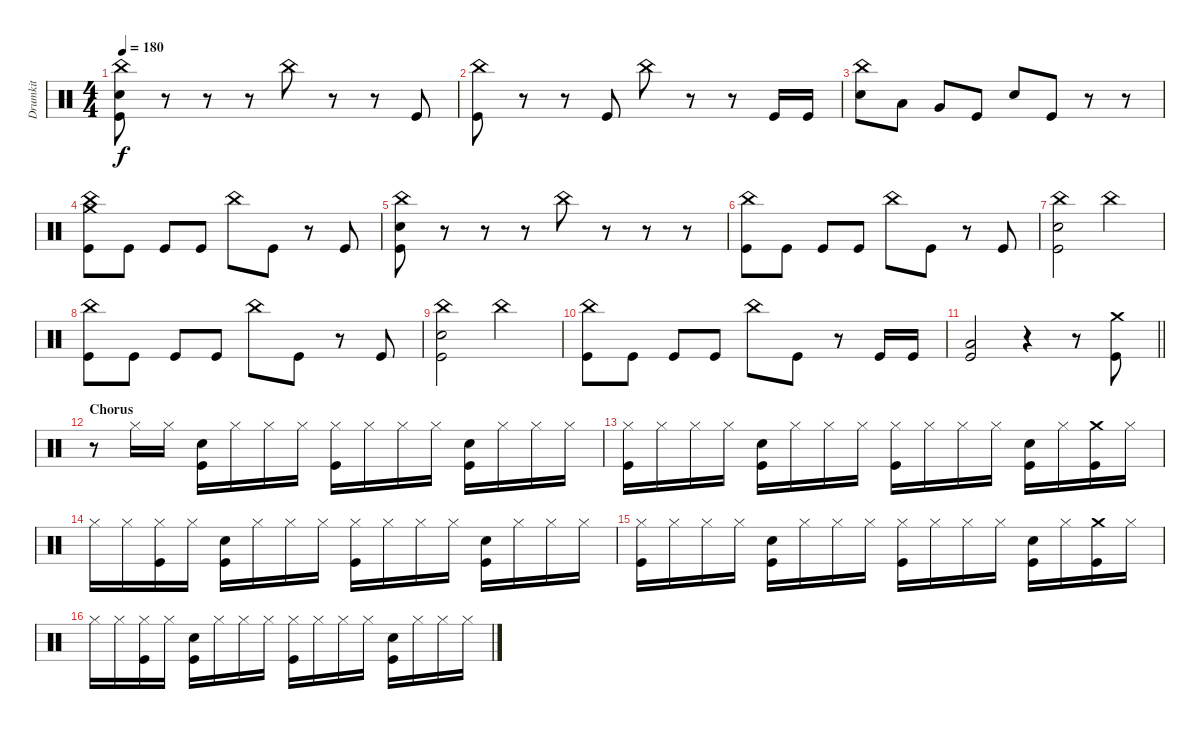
\track ("Drumkit" "Drumkit") {instrument percussion}
\staff {score}
\articulation defaults
\ts (4 4)
\tempo 180
\clef neutral
\ks c
("China (hit)" "Snare (hit) 2" "Kick (hit)").8{dy f} r.8 r.8 r.8 "China (hit)".8 r.8 r.8 "Kick (hit)".8 |
("China (hit)" "Kick (hit)").8 r.8 r.8 "Kick (hit)".8 "China (hit)".8 r.8 r.8 "Kick (hit)".16 "Kick (hit)".16 |
("China (hit)" "Snare (hit) 2").8 "Low Tom (hit)".8 "Very Low Tom (hit)".8 "Kick (hit)".8 "Snare (hit) 2".8 "Kick (hit)".8 r.8 r.8 |
("China (hit)" "Crash medium (hit)" "Kick (hit)").8 "Kick (hit)".8 "Kick (hit)".8 "Kick (hit)".8 "China (hit)".8 "Kick (hit)".8 r.8 "Kick (hit)".8 |
("China (hit)" "Snare (hit) 2" "Kick (hit)").8 r.8 r.8 r.8 "China (hit)".8 r.8 r.8 r.8 |
("China (hit)" "Kick (hit)").8 "Kick (hit)".8 "Kick (hit)".8 "Kick (hit)".8 "China (hit)".8 "Kick (hit)".8 r.8 "Kick (hit)".8 |
("China (hit)" "Snare (hit) 2" "Kick (hit)").2 "China (hit)".2 |
("China (hit)" "Kick (hit)").8 "Kick (hit)".8 "Kick (hit)".8 "Kick (hit)".8 "China (hit)".8 "Kick (hit)".8 r.8 "Kick (hit)".8 |
("China (hit)" "Snare (hit) 2" "Kick (hit)").2 "China (hit)".2 |
("China (hit)" "Kick (hit)").8 "Kick (hit)".8 "Kick (hit)".8 "Kick (hit)".8 "China (hit)".8 "Kick (hit)".8 r.8 "Kick (hit)".16 "Kick (hit)".16 |
\barLineRight lightlight
("Low Floor Tom (hit)" "Kick (hit)").2 r.4 r.8 ("Crash medium (hit)" "Kick (hit)").8 |
\section ("" "Chorus")
r.8 "Hi-Hat (closed)".16 "Hi-Hat (closed)".16 ("Snare (hit) 2" "Kick (hit)").16 "Hi-Hat (closed)".16 "Hi-Hat (closed)".16 "Hi-Hat (closed)".16 ("Hi-Hat (closed)" "Kick (hit)").16 "Hi-Hat (closed)".16 "Hi-Hat (closed)".16 "Hi-Hat (closed)".16 ("Snare (hit) 2" "Kick (hit)").16 "Hi-Hat (closed)".16 "Hi-Hat (closed)".16 "Hi-Hat (closed)".16 |
("Hi-Hat (closed)" "Kick (hit)").16 "Hi-Hat (closed)".16 "Hi-Hat (closed)".16 "Hi-Hat (closed)".16 ("Snare (hit) 2" "Kick (hit)").16 "Hi-Hat (closed)".16 "Hi-Hat (closed)".16 "Hi-Hat (closed)".16 ("Hi-Hat (closed)" "Kick (hit)").16 "Hi-Hat (closed)".16 "Hi-Hat (closed)".16 "Hi-Hat (closed)".16 ("Snare (hit) 2" "Kick (hit)").16 "Hi-Hat (closed)".16 ("Crash medium (hit)" "Kick (hit)").16 "Hi-Hat (closed)".16 |
"Hi-Hat (closed)".16 "Hi-Hat (closed)".16 ("Hi-Hat (closed)" "Kick (hit)").16 "Hi-Hat (closed)".16 ("Snare (hit) 2" "Kick (hit)").16 "Hi-Hat (closed)".16 "Hi-Hat (closed)".16 "Hi-Hat (closed)".16 ("Hi-Hat (closed)" "Kick (hit)").16 "Hi-Hat (closed)".16 "Hi-Hat (closed)".16 "Hi-Hat (closed)".16 ("Snare (hit) 2" "Kick (hit)").16 "Hi-Hat (closed)".16 "Hi-Hat (closed)".16 "Hi-Hat (closed)".16 |
("Hi-Hat (closed)" "Kick (hit)").16 "Hi-Hat (closed)".16 "Hi-Hat (closed)".16 "Hi-Hat (closed)".16 ("Snare (hit) 2" "Kick (hit)").16 "Hi-Hat (closed)".16 "Hi-Hat (closed)".16 "Hi-Hat (closed)".16 ("Hi-Hat (closed)" "Kick (hit)").16 "Hi-Hat (closed)".16 "Hi-Hat (closed)".16 "Hi-Hat (closed)".16 ("Snare (hit) 2" "Kick (hit)").16 "Hi-Hat (closed)".16 ("Crash medium (hit)" "Kick (hit)").16 "Hi-Hat (closed)".16 |
"Hi-Hat (closed)".16 "Hi-Hat (closed)".16 ("Hi-Hat (closed)" "Kick (hit)").16 "Hi-Hat (closed)".16 ("Snare (hit) 2" "Kick (hit)").16 "Hi-Hat (closed)".16 "Hi-Hat (closed)".16 "Hi-Hat (closed)".16 ("Hi-Hat (closed)" "Kick (hit)").16 "Hi-Hat (closed)".16 "Hi-Hat (closed)".16 "Hi-Hat (closed)".16 ("Snare (hit) 2" "Kick (hit)").16 "Hi-Hat (closed)".16 "Hi-Hat (closed)".16 "Hi-Hat (closed)".16
